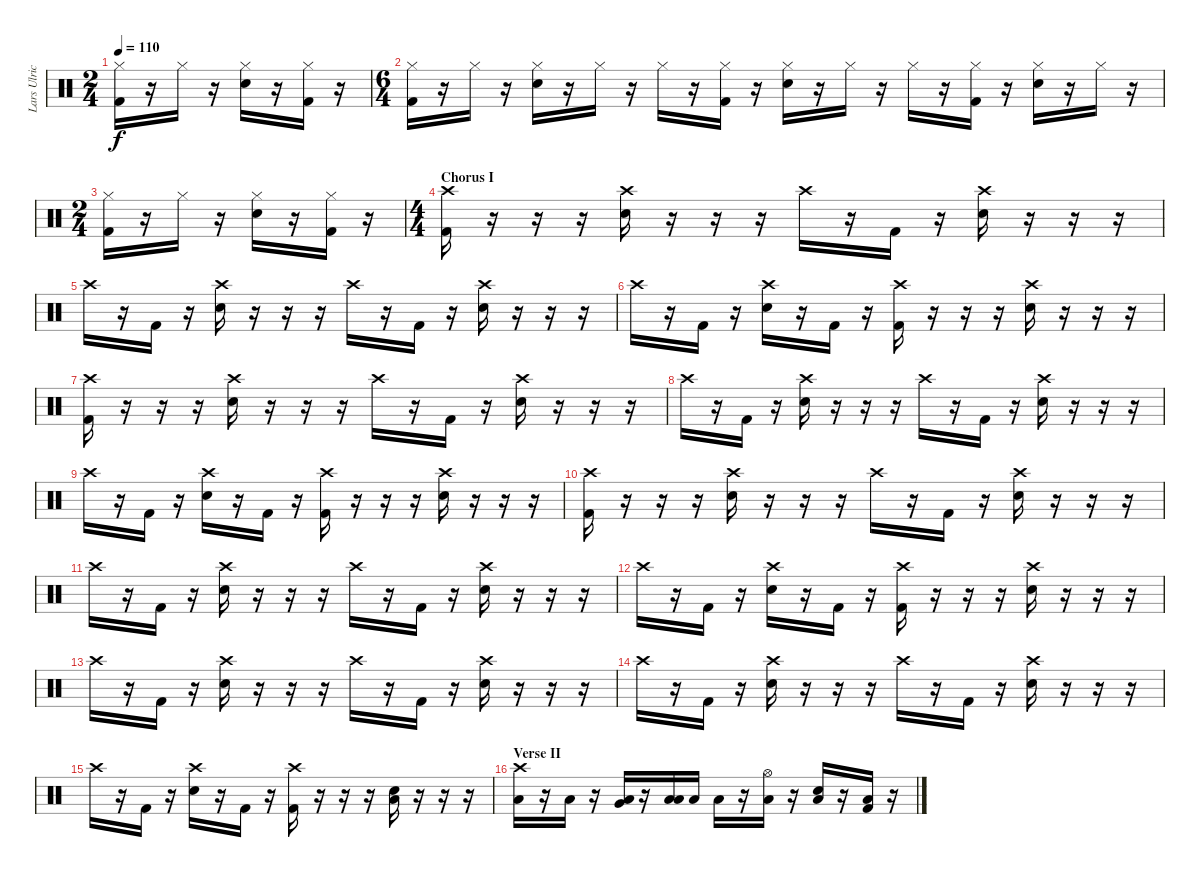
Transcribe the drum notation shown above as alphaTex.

\track ("Lars Ulrich - Drums" "Lars Ulric") {instrument percussion}
\staff {score}
\articulation defaults
\ts (2 4)
\tempo 110
\clef neutral
\ks c
("Hi-Hat (closed)" "Kick (hit) 2").16{dy f} r.16 "Hi-Hat (closed)".16 r.16 ("Hi-Hat (closed)" "Snare (hit) 2").16 r.16 ("Hi-Hat (closed)" "Kick (hit) 2").16 r.16 |
\ts (6 4)
("Hi-Hat (closed)" "Kick (hit) 2").16 r.16 "Hi-Hat (closed)".16 r.16 ("Hi-Hat (closed)" "Snare (hit) 2").16 r.16 "Hi-Hat (closed)".16 r.16 "Hi-Hat (closed)".16 r.16 ("Hi-Hat (closed)" "Kick (hit) 2").16 r.16 ("Hi-Hat (closed)" "Snare (hit) 2").16 r.16 "Hi-Hat (closed)".16 r.16 "Hi-Hat (closed)".16 r.16 ("Hi-Hat (closed)" "Kick (hit) 2").16 r.16 ("Hi-Hat (closed)" "Snare (hit) 2").16 r.16 "Hi-Hat (closed)".16 r.16 |
\ts (2 4)
("Hi-Hat (closed)" "Kick (hit) 2").16 r.16 "Hi-Hat (closed)".16 r.16 ("Hi-Hat (closed)" "Snare (hit) 2").16 r.16 ("Hi-Hat (closed)" "Kick (hit) 2").16 r.16 |
\ts (4 4)
\section ("" "Chorus I")
("Crash high (hit)" "Kick (hit) 2").16 r.16 r.16 r.16 ("Crash high (hit)" "Snare (hit) 2").16 r.16 r.16 r.16 "Crash high (hit)".16 r.16 "Kick (hit) 2".16 r.16 ("Crash high (hit)" "Snare (hit) 2").16 r.16 r.16 r.16 |
"Crash high (hit)".16 r.16 "Kick (hit) 2".16 r.16 ("Crash high (hit)" "Snare (hit) 2").16 r.16 r.16 r.16 "Crash high (hit)".16 r.16 "Kick (hit) 2".16 r.16 ("Crash high (hit)" "Snare (hit) 2").16 r.16 r.16 r.16 |
"Crash high (hit)".16 r.16 "Kick (hit) 2".16 r.16 ("Crash high (hit)" "Snare (hit) 2").16 r.16 "Kick (hit) 2".16 r.16 ("Crash high (hit)" "Kick (hit) 2").16 r.16 r.16 r.16 ("Crash high (hit)" "Snare (hit) 2").16 r.16 r.16 r.16 |
("Crash high (hit)" "Kick (hit) 2").16 r.16 r.16 r.16 ("Crash high (hit)" "Snare (hit) 2").16 r.16 r.16 r.16 "Crash high (hit)".16 r.16 "Kick (hit) 2".16 r.16 ("Crash high (hit)" "Snare (hit) 2").16 r.16 r.16 r.16 |
"Crash high (hit)".16 r.16 "Kick (hit) 2".16 r.16 ("Crash high (hit)" "Snare (hit) 2").16 r.16 r.16 r.16 "Crash high (hit)".16 r.16 "Kick (hit) 2".16 r.16 ("Crash high (hit)" "Snare (hit) 2").16 r.16 r.16 r.16 |
"Crash high (hit)".16 r.16 "Kick (hit) 2".16 r.16 ("Crash high (hit)" "Snare (hit) 2").16 r.16 "Kick (hit) 2".16 r.16 ("Crash high (hit)" "Kick (hit) 2").16 r.16 r.16 r.16 ("Crash high (hit)" "Snare (hit) 2").16 r.16 r.16 r.16 |
("Crash high (hit)" "Kick (hit) 2").16 r.16 r.16 r.16 ("Crash high (hit)" "Snare (hit) 2").16 r.16 r.16 r.16 "Crash high (hit)".16 r.16 "Kick (hit) 2".16 r.16 ("Crash high (hit)" "Snare (hit) 2").16 r.16 r.16 r.16 |
"Crash high (hit)".16 r.16 "Kick (hit) 2".16 r.16 ("Crash high (hit)" "Snare (hit) 2").16 r.16 r.16 r.16 "Crash high (hit)".16 r.16 "Kick (hit) 2".16 r.16 ("Crash high (hit)" "Snare (hit) 2").16 r.16 r.16 r.16 |
"Crash high (hit)".16 r.16 "Kick (hit) 2".16 r.16 ("Crash high (hit)" "Snare (hit) 2").16 r.16 "Kick (hit) 2".16 r.16 ("Crash high (hit)" "Kick (hit) 2").16 r.16 r.16 r.16 ("Crash high (hit)" "Snare (hit) 2").16 r.16 r.16 r.16 |
"Crash high (hit)".16 r.16 "Kick (hit) 2".16 r.16 ("Crash high (hit)" "Snare (hit) 2").16 r.16 r.16 r.16 "Crash high (hit)".16 r.16 "Kick (hit) 2".16 r.16 ("Crash high (hit)" "Snare (hit) 2").16 r.16 r.16 r.16 |
"Crash high (hit)".16 r.16 "Kick (hit) 2".16 r.16 ("Crash high (hit)" "Snare (hit) 2").16 r.16 r.16 r.16 "Crash high (hit)".16 r.16 "Kick (hit) 2".16 r.16 ("Crash high (hit)" "Snare (hit) 2").16 r.16 r.16 r.16 |
"Crash high (hit)".16 r.16 "Kick (hit) 2".16 r.16 ("Crash high (hit)" "Snare (hit) 2").16 r.16 "Kick (hit) 2".16 r.16 ("Crash high (hit)" "Kick (hit) 2").16 r.16 r.16 r.16 ("Snare (hit) 2" "Low Floor Tom (hit)").16 r.16 r.16 r.16 |
\section ("" "Verse II")
("Crash high (hit)" "Low Floor Tom (hit)").16 r.16 "Low Floor Tom (hit)".16 r.16 ("Very Low Tom (hit)" "Low Floor Tom (hit)").16 r.16 ("Low Tom (hit)" "Low Floor Tom (hit)").16 "Low Tom (hit)".16 "Low Floor Tom (hit)".16 r.16 ("Hi-Hat (open)" "Low Floor Tom (hit)").16 r.16 ("Snare (hit) 2" "Low Floor Tom (hit)").16 r.16 ("Kick (hit) 2" "Low Floor Tom (hit)").16 r.16
